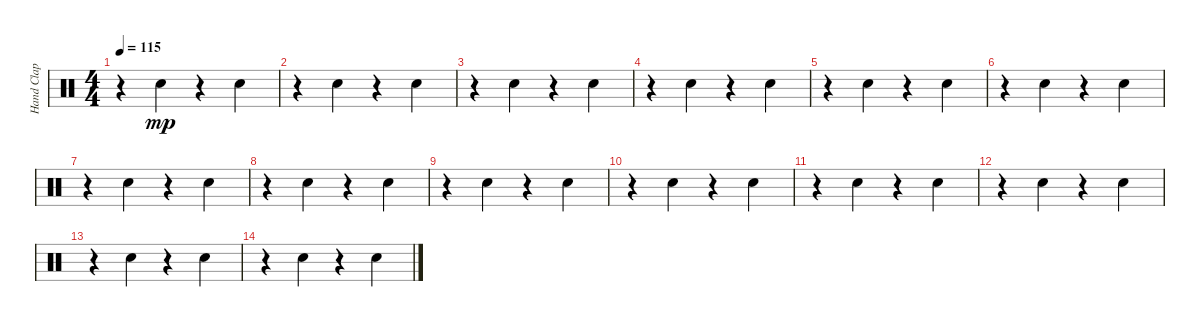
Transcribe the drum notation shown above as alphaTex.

\track ("Hand Clap" "Hand Clap") {instrument percussion}
\staff {score}
\articulation defaults
\ts (4 4)
\tempo 115
\clef neutral
\ks c
r.4{dy mp} "Hand Clap (hit)".4 r.4 "Hand Clap (hit)".4 |
r.4 "Hand Clap (hit)".4 r.4 "Hand Clap (hit)".4 |
r.4 "Hand Clap (hit)".4 r.4 "Hand Clap (hit)".4 |
r.4 "Hand Clap (hit)".4 r.4 "Hand Clap (hit)".4 |
r.4 "Hand Clap (hit)".4 r.4 "Hand Clap (hit)".4 |
r.4 "Hand Clap (hit)".4 r.4 "Hand Clap (hit)".4 |
r.4 "Hand Clap (hit)".4 r.4 "Hand Clap (hit)".4 |
r.4 "Hand Clap (hit)".4 r.4 "Hand Clap (hit)".4 |
r.4 "Hand Clap (hit)".4 r.4 "Hand Clap (hit)".4 |
r.4 "Hand Clap (hit)".4 r.4 "Hand Clap (hit)".4 |
r.4 "Hand Clap (hit)".4 r.4 "Hand Clap (hit)".4 |
r.4 "Hand Clap (hit)".4 r.4 "Hand Clap (hit)".4 |
r.4 "Hand Clap (hit)".4 r.4 "Hand Clap (hit)".4 |
r.4 "Hand Clap (hit)".4 r.4 "Hand Clap (hit)".4
